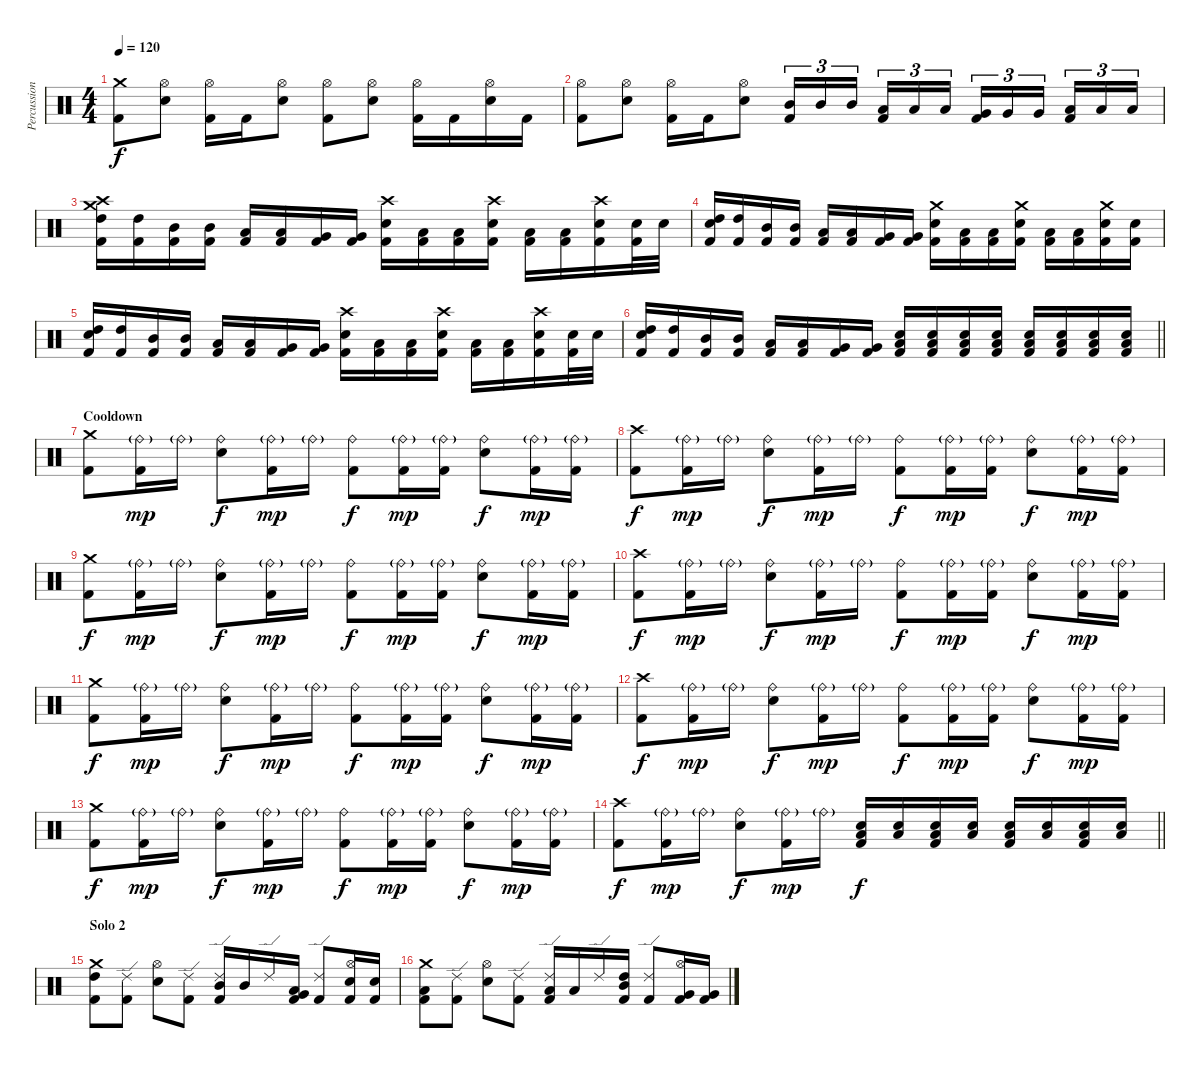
\track ("Percussion" "Percussion") {instrument percussion}
\staff {score}
\articulation defaults
\ts (4 4)
\tempo 120
\clef neutral
\ks c
("Crash medium (hit)" "Kick (hit) 2").8{dy f} ("Hi-Hat (open)" "Electric Snare (hit)").8 ("Hi-Hat (open)" "Kick (hit) 2").16 "Kick (hit) 2".16 ("Hi-Hat (open)" "Electric Snare (hit)").8 ("Hi-Hat (open)" "Kick (hit) 2").8 ("Hi-Hat (open)" "Electric Snare (hit)").8 ("Hi-Hat (open)" "Kick (hit) 2").16 "Kick (hit) 2".16 ("Hi-Hat (open)" "Electric Snare (hit)").16 "Kick (hit) 2".16 |
("Hi-Hat (open)" "Kick (hit) 2").8 ("Hi-Hat (open)" "Electric Snare (hit)").8 ("Hi-Hat (open)" "Kick (hit) 2").16 "Kick (hit) 2".16 ("Hi-Hat (open)" "Electric Snare (hit)").8 ("Mid Tom (hit)" "Kick (hit) 2").16{tu (3 2)} "Mid Tom (hit)".16{tu (3 2)} "Mid Tom (hit)".16{tu (3 2) beam splitsecondary} ("Low Tom (hit)" "Kick (hit) 2").16{tu (3 2)} "Low Tom (hit)".16{tu (3 2)} "Low Tom (hit)".16{tu (3 2)} ("Very Low Tom (hit)" "Kick (hit) 2").16{tu (3 2)} "Very Low Tom (hit)".16{tu (3 2)} "Very Low Tom (hit)".16{tu (3 2) beam splitsecondary} ("Low Floor Tom (hit)" "Kick (hit) 2").16{tu (3 2)} "Low Floor Tom (hit)".16{tu (3 2)} "Low Floor Tom (hit)".16{tu (3 2)} |
("Crash high (hit)" "Crash medium (hit)" "High Tom (hit)" "Kick (hit) 2").16 ("High Tom (hit)" "Kick (hit) 2").16 ("Mid Tom (hit)" "Kick (hit) 2").16 ("Mid Tom (hit)" "Kick (hit) 2").16 ("Low Tom (hit)" "Kick (hit) 2").16 ("Low Tom (hit)" "Kick (hit) 2").16 ("Very Low Tom (hit)" "Kick (hit) 2").16 ("Very Low Tom (hit)" "Kick (hit) 2").16 ("Crash high (hit)" "Electric Snare (hit)" "Kick (hit) 2").16 ("Low Floor Tom (hit)" "Kick (hit) 2").16 ("Low Floor Tom (hit)" "Kick (hit) 2").16 ("Crash high (hit)" "Electric Snare (hit)" "Kick (hit) 2").16 ("Low Floor Tom (hit)" "Kick (hit) 2").16 ("Low Floor Tom (hit)" "Kick (hit) 2").16 ("Crash high (hit)" "Electric Snare (hit)" "Kick (hit) 2").16 ("Electric Snare (hit)" "Kick (hit) 2").32 "Electric Snare (hit)".32 |
("Electric Snare (hit)" "High Tom (hit)" "Kick (hit) 2").16 ("High Tom (hit)" "Kick (hit) 2").16 ("Mid Tom (hit)" "Kick (hit) 2").16 ("Mid Tom (hit)" "Kick (hit) 2").16 ("Low Tom (hit)" "Kick (hit) 2").16 ("Low Tom (hit)" "Kick (hit) 2").16 ("Very Low Tom (hit)" "Kick (hit) 2").16 ("Very Low Tom (hit)" "Kick (hit) 2").16 ("Crash medium (hit)" "Electric Snare (hit)" "Kick (hit) 2").16 ("Low Floor Tom (hit)" "Kick (hit) 2").16 ("Low Floor Tom (hit)" "Kick (hit) 2").16 ("Crash medium (hit)" "Electric Snare (hit)" "Kick (hit) 2").16 ("Low Floor Tom (hit)" "Kick (hit) 2").16 ("Low Floor Tom (hit)" "Kick (hit) 2").16 ("Crash medium (hit)" "Electric Snare (hit)" "Kick (hit) 2").16 ("Electric Snare (hit)" "Kick (hit) 2").16 |
("Electric Snare (hit)" "High Tom (hit)" "Kick (hit) 2").16 ("High Tom (hit)" "Kick (hit) 2").16 ("Mid Tom (hit)" "Kick (hit) 2").16 ("Mid Tom (hit)" "Kick (hit) 2").16 ("Low Tom (hit)" "Kick (hit) 2").16 ("Low Tom (hit)" "Kick (hit) 2").16 ("Very Low Tom (hit)" "Kick (hit) 2").16 ("Very Low Tom (hit)" "Kick (hit) 2").16 ("Crash high (hit)" "Electric Snare (hit)" "Kick (hit) 2").16 ("Low Floor Tom (hit)" "Kick (hit) 2").16 ("Low Floor Tom (hit)" "Kick (hit) 2").16 ("Crash high (hit)" "Electric Snare (hit)" "Kick (hit) 2").16 ("Low Floor Tom (hit)" "Kick (hit) 2").16 ("Low Floor Tom (hit)" "Kick (hit) 2").16 ("Crash high (hit)" "Electric Snare (hit)" "Kick (hit) 2").16 ("Electric Snare (hit)" "Kick (hit) 2").32 "Electric Snare (hit)".32 |
\barLineRight lightlight
("Electric Snare (hit)" "High Tom (hit)" "Kick (hit) 2").16 ("High Tom (hit)" "Kick (hit) 2").16 ("Mid Tom (hit)" "Kick (hit) 2").16 ("Mid Tom (hit)" "Kick (hit) 2").16 ("Low Tom (hit)" "Kick (hit) 2").16 ("Low Tom (hit)" "Kick (hit) 2").16 ("Very Low Tom (hit)" "Kick (hit) 2").16 ("Very Low Tom (hit)" "Kick (hit) 2").16 ("Low Floor Tom (hit)" "Electric Snare (hit)" "Kick (hit) 2").16 ("Low Floor Tom (hit)" "Electric Snare (hit)" "Kick (hit) 2").16 ("Low Floor Tom (hit)" "Electric Snare (hit)" "Kick (hit) 2").16 ("Low Floor Tom (hit)" "Electric Snare (hit)" "Kick (hit) 2").16 ("Low Floor Tom (hit)" "Electric Snare (hit)" "Kick (hit) 2").16 ("Low Floor Tom (hit)" "Electric Snare (hit)" "Kick (hit) 2").16 ("Low Floor Tom (hit)" "Electric Snare (hit)" "Kick (hit) 2").16 ("Low Floor Tom (hit)" "Electric Snare (hit)" "Kick (hit) 2").16 |
\section ("" "Cooldown")
("Crash medium (hit)" "Kick (hit) 2").8 ("Ride (bell)"{g} "Kick (hit) 2").16{dy mp} "Ride (bell)"{g}.16 ("Ride (bell)" "Electric Snare (hit)").8{dy f} ("Ride (bell)"{g} "Kick (hit) 2").16{dy mp} "Ride (bell)"{g}.16 ("Ride (bell)" "Kick (hit) 2").8{dy f} ("Ride (bell)"{g} "Kick (hit) 2").16{dy mp} ("Ride (bell)"{g} "Kick (hit) 2").16 ("Ride (bell)" "Electric Snare (hit)").8{dy f} ("Ride (bell)"{g} "Kick (hit) 2").16{dy mp} ("Ride (bell)"{g} "Kick (hit) 2").16 |
("Crash high (hit)" "Kick (hit) 2").8{dy f} ("Ride (bell)"{g} "Kick (hit) 2").16{dy mp} "Ride (bell)"{g}.16 ("Ride (bell)" "Electric Snare (hit)").8{dy f} ("Ride (bell)"{g} "Kick (hit) 2").16{dy mp} "Ride (bell)"{g}.16 ("Ride (bell)" "Kick (hit) 2").8{dy f} ("Ride (bell)"{g} "Kick (hit) 2").16{dy mp} ("Ride (bell)"{g} "Kick (hit) 2").16 ("Ride (bell)" "Electric Snare (hit)").8{dy f} ("Ride (bell)"{g} "Kick (hit) 2").16{dy mp} ("Ride (bell)"{g} "Kick (hit) 2").16 |
("Crash medium (hit)" "Kick (hit) 2").8{dy f} ("Ride (bell)"{g} "Kick (hit) 2").16{dy mp} "Ride (bell)"{g}.16 ("Ride (bell)" "Electric Snare (hit)").8{dy f} ("Ride (bell)"{g} "Kick (hit) 2").16{dy mp} "Ride (bell)"{g}.16 ("Ride (bell)" "Kick (hit) 2").8{dy f} ("Ride (bell)"{g} "Kick (hit) 2").16{dy mp} ("Ride (bell)"{g} "Kick (hit) 2").16 ("Ride (bell)" "Electric Snare (hit)").8{dy f} ("Ride (bell)"{g} "Kick (hit) 2").16{dy mp} ("Ride (bell)"{g} "Kick (hit) 2").16 |
("Crash high (hit)" "Kick (hit) 2").8{dy f} ("Ride (bell)"{g} "Kick (hit) 2").16{dy mp} "Ride (bell)"{g}.16 ("Ride (bell)" "Electric Snare (hit)").8{dy f} ("Ride (bell)"{g} "Kick (hit) 2").16{dy mp} "Ride (bell)"{g}.16 ("Ride (bell)" "Kick (hit) 2").8{dy f} ("Ride (bell)"{g} "Kick (hit) 2").16{dy mp} ("Ride (bell)"{g} "Kick (hit) 2").16 ("Ride (bell)" "Electric Snare (hit)").8{dy f} ("Ride (bell)"{g} "Kick (hit) 2").16{dy mp} ("Ride (bell)"{g} "Kick (hit) 2").16 |
("Crash medium (hit)" "Kick (hit) 2").8{dy f} ("Ride (bell)"{g} "Kick (hit) 2").16{dy mp} "Ride (bell)"{g}.16 ("Ride (bell)" "Electric Snare (hit)").8{dy f} ("Ride (bell)"{g} "Kick (hit) 2").16{dy mp} "Ride (bell)"{g}.16 ("Ride (bell)" "Kick (hit) 2").8{dy f} ("Ride (bell)"{g} "Kick (hit) 2").16{dy mp} ("Ride (bell)"{g} "Kick (hit) 2").16 ("Ride (bell)" "Electric Snare (hit)").8{dy f} ("Ride (bell)"{g} "Kick (hit) 2").16{dy mp} ("Ride (bell)"{g} "Kick (hit) 2").16 |
("Crash high (hit)" "Kick (hit) 2").8{dy f} ("Ride (bell)"{g} "Kick (hit) 2").16{dy mp} "Ride (bell)"{g}.16 ("Ride (bell)" "Electric Snare (hit)").8{dy f} ("Ride (bell)"{g} "Kick (hit) 2").16{dy mp} "Ride (bell)"{g}.16 ("Ride (bell)" "Kick (hit) 2").8{dy f} ("Ride (bell)"{g} "Kick (hit) 2").16{dy mp} ("Ride (bell)"{g} "Kick (hit) 2").16 ("Ride (bell)" "Electric Snare (hit)").8{dy f} ("Ride (bell)"{g} "Kick (hit) 2").16{dy mp} ("Ride (bell)"{g} "Kick (hit) 2").16 |
("Crash medium (hit)" "Kick (hit) 2").8{dy f} ("Ride (bell)"{g} "Kick (hit) 2").16{dy mp} "Ride (bell)"{g}.16 ("Ride (bell)" "Electric Snare (hit)").8{dy f} ("Ride (bell)"{g} "Kick (hit) 2").16{dy mp} "Ride (bell)"{g}.16 ("Ride (bell)" "Kick (hit) 2").8{dy f} ("Ride (bell)"{g} "Kick (hit) 2").16{dy mp} ("Ride (bell)"{g} "Kick (hit) 2").16 ("Ride (bell)" "Electric Snare (hit)").8{dy f} ("Ride (bell)"{g} "Kick (hit) 2").16{dy mp} ("Ride (bell)"{g} "Kick (hit) 2").16 |
\barLineRight lightlight
("Crash high (hit)" "Kick (hit) 2").8{dy f} ("Ride (bell)"{g} "Kick (hit) 2").16{dy mp} "Ride (bell)"{g}.16 ("Ride (bell)" "Electric Snare (hit)").8{dy f} ("Ride (bell)"{g} "Kick (hit) 2").16{dy mp} "Ride (bell)"{g}.16 ("Low Floor Tom (hit)" "Electric Snare (hit)" "Kick (hit) 2").16{dy f} ("Low Floor Tom (hit)" "Electric Snare (hit)").16 ("Low Floor Tom (hit)" "Electric Snare (hit)" "Kick (hit) 2").16 ("Low Floor Tom (hit)" "Electric Snare (hit)").16 ("Low Floor Tom (hit)" "Electric Snare (hit)" "Kick (hit) 2").16 ("Low Floor Tom (hit)" "Electric Snare (hit)").16 ("Low Floor Tom (hit)" "Electric Snare (hit)" "Kick (hit) 2").16 ("Low Floor Tom (hit)" "Electric Snare (hit)").16 |
\section ("" "Solo 2")
("Crash medium (hit)" "High Tom (hit)" "Kick (hit) 2").8 ("Ride (edge) 2" "Kick (hit) 2").8 ("Hi-Hat (open)" "Electric Snare (hit)").8 ("Ride (edge) 2" "Kick (hit) 2").8 ("Ride (edge) 2" "Mid Tom (hit)" "Kick (hit) 2").16 "Mid Tom (hit)".16 "Ride (edge) 2".16 ("Very Low Tom (hit)" "Low Floor Tom (hit)" "Kick (hit) 2").16 ("Ride (edge) 2" "Kick (hit) 2").8 ("Hi-Hat (open)" "Electric Snare (hit)" "Kick (hit) 2").16 ("Electric Snare (hit)" "Kick (hit) 2").16 |
("Crash medium (hit)" "Low Floor Tom (hit)" "Kick (hit) 2").8 ("Ride (edge) 2" "Kick (hit) 2").8 ("Hi-Hat (open)" "Electric Snare (hit)").8 ("Ride (edge) 2" "Kick (hit) 2").8 ("Ride (edge) 2" "Low Tom (hit)" "Kick (hit) 2").16 "Low Tom (hit)".16 "Ride (edge) 2".16 ("High Tom (hit)" "Mid Tom (hit)" "Kick (hit) 2").16 ("Ride (edge) 2" "Kick (hit) 2").8 ("Hi-Hat (open)" "Very Low Tom (hit)" "Kick (hit) 2").16 ("Very Low Tom (hit)" "Kick (hit) 2").16
